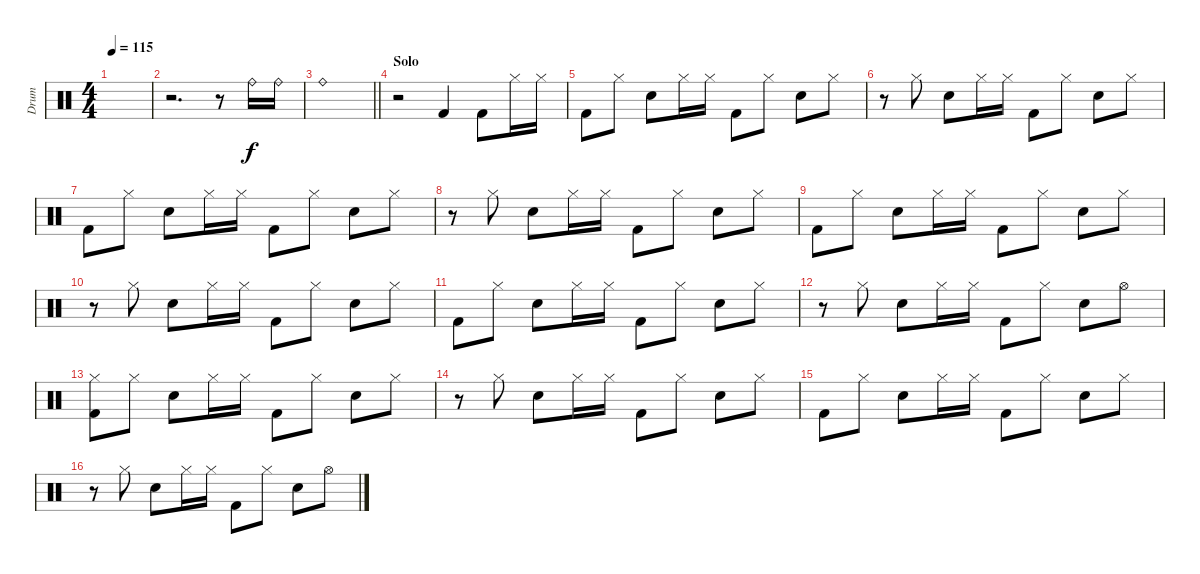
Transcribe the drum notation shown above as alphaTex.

\track ("Drum" "Drum") {instrument percussion}
\staff {score}
\articulation defaults
\ts (4 4)
\tempo 115
\clef neutral
\ks c
|
r.2{d} r.8 "Ride (bell)".16 "Ride (bell)".16 |
\barLineRight lightlight "Ride (bell)".1
|
\section ("" "Solo")
r.2 "Kick (hit) 2".4 "Kick (hit) 2".8 "Hi-Hat (closed)".16 "Hi-Hat (closed)".16 |
"Kick (hit) 2".8 "Hi-Hat (closed)".8 "Electric Snare (hit)".8 "Hi-Hat (closed)".16 "Hi-Hat (closed)".16 "Kick (hit) 2".8 "Hi-Hat (closed)".8 "Electric Snare (hit)".8 "Hi-Hat (closed)".8 |
r.8 "Hi-Hat (closed)".8 "Electric Snare (hit)".8 "Hi-Hat (closed)".16 "Hi-Hat (closed)".16 "Kick (hit) 2".8 "Hi-Hat (closed)".8 "Electric Snare (hit)".8 "Hi-Hat (closed)".8 |
"Kick (hit) 2".8 "Hi-Hat (closed)".8 "Electric Snare (hit)".8 "Hi-Hat (closed)".16 "Hi-Hat (closed)".16 "Kick (hit) 2".8 "Hi-Hat (closed)".8 "Electric Snare (hit)".8 "Hi-Hat (closed)".8 |
r.8 "Hi-Hat (closed)".8 "Electric Snare (hit)".8 "Hi-Hat (closed)".16 "Hi-Hat (closed)".16 "Kick (hit) 2".8 "Hi-Hat (closed)".8 "Electric Snare (hit)".8 "Hi-Hat (closed)".8 |
"Kick (hit) 2".8 "Hi-Hat (closed)".8 "Electric Snare (hit)".8 "Hi-Hat (closed)".16 "Hi-Hat (closed)".16 "Kick (hit) 2".8 "Hi-Hat (closed)".8 "Electric Snare (hit)".8 "Hi-Hat (closed)".8 |
r.8 "Hi-Hat (closed)".8 "Electric Snare (hit)".8 "Hi-Hat (closed)".16 "Hi-Hat (closed)".16 "Kick (hit) 2".8 "Hi-Hat (closed)".8 "Electric Snare (hit)".8 "Hi-Hat (closed)".8 |
"Kick (hit) 2".8 "Hi-Hat (closed)".8 "Electric Snare (hit)".8 "Hi-Hat (closed)".16 "Hi-Hat (closed)".16 "Kick (hit) 2".8 "Hi-Hat (closed)".8 "Electric Snare (hit)".8 "Hi-Hat (closed)".8 |
r.8 "Hi-Hat (closed)".8 "Electric Snare (hit)".8 "Hi-Hat (closed)".16 "Hi-Hat (closed)".16 "Kick (hit) 2".8 "Hi-Hat (closed)".8 "Electric Snare (hit)".8 "Hi-Hat (open)".8 |
("Hi-Hat (closed)" "Kick (hit) 2").8 "Hi-Hat (closed)".8 "Electric Snare (hit)".8 "Hi-Hat (closed)".16 "Hi-Hat (closed)".16 "Kick (hit) 2".8 "Hi-Hat (closed)".8 "Electric Snare (hit)".8 "Hi-Hat (closed)".8 |
r.8 "Hi-Hat (closed)".8 "Electric Snare (hit)".8 "Hi-Hat (closed)".16 "Hi-Hat (closed)".16 "Kick (hit) 2".8 "Hi-Hat (closed)".8 "Electric Snare (hit)".8 "Hi-Hat (closed)".8 |
"Kick (hit) 2".8 "Hi-Hat (closed)".8 "Electric Snare (hit)".8 "Hi-Hat (closed)".16 "Hi-Hat (closed)".16 "Kick (hit) 2".8 "Hi-Hat (closed)".8 "Electric Snare (hit)".8 "Hi-Hat (closed)".8 |
r.8 "Hi-Hat (closed)".8 "Electric Snare (hit)".8 "Hi-Hat (closed)".16 "Hi-Hat (closed)".16 "Kick (hit) 2".8 "Hi-Hat (closed)".8 "Electric Snare (hit)".8 "Hi-Hat (open)".8
